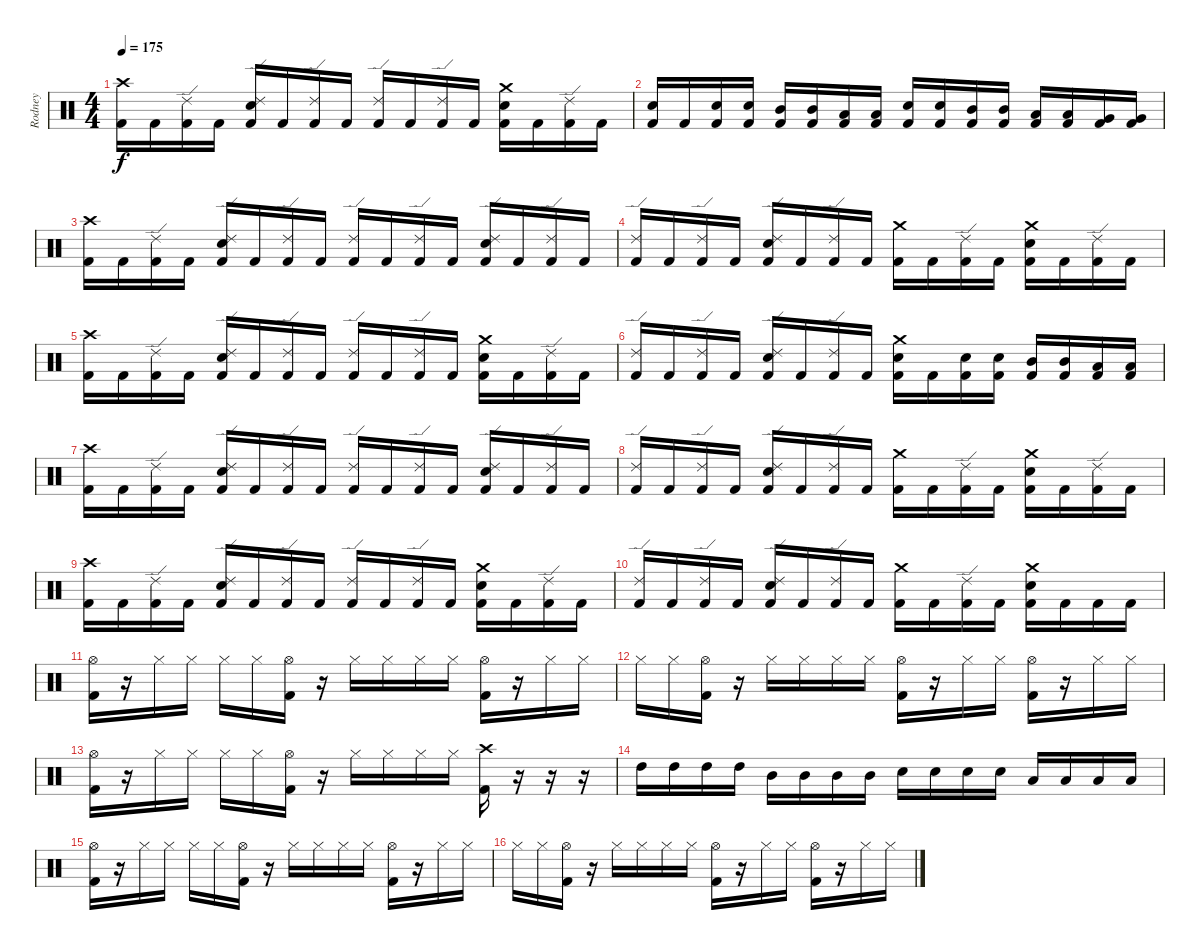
\track ("Rodney" "Rodney") {instrument percussion}
\staff {score}
\articulation defaults
\ts (4 4)
\tempo 175
\clef neutral
\ks c
("Crash high (hit)" "Kick (hit) 2").16{dy f} "Kick (hit) 2".16 ("Ride (edge) 2" "Kick (hit) 2").16 "Kick (hit) 2".16 ("Ride (edge) 2" "Snare (hit) 2" "Kick (hit) 2").16 "Kick (hit) 2".16 ("Ride (edge) 2" "Kick (hit) 2").16 "Kick (hit) 2".16 ("Ride (edge) 2" "Kick (hit) 2").16 "Kick (hit) 2".16 ("Ride (edge) 2" "Kick (hit) 2").16 "Kick (hit) 2".16 ("Crash medium (hit)" "Snare (hit) 2" "Kick (hit) 2").16 "Kick (hit) 2".16 ("Ride (edge) 2" "Kick (hit) 2").16 "Kick (hit) 2".16 |
("Snare (hit) 2" "Kick (hit) 2").16 "Kick (hit) 2".16 ("Snare (hit) 2" "Kick (hit) 2").16 ("Snare (hit) 2" "Kick (hit) 2").16 ("Mid Tom (hit)" "Kick (hit) 2").16 ("Mid Tom (hit)" "Kick (hit) 2").16 ("Low Tom (hit)" "Kick (hit) 2").16 ("Low Tom (hit)" "Kick (hit) 2").16 ("Snare (hit) 2" "Kick (hit) 2").16 ("Snare (hit) 2" "Kick (hit) 2").16 ("Mid Tom (hit)" "Kick (hit) 2").16 ("Mid Tom (hit)" "Kick (hit) 2").16 ("Low Tom (hit)" "Kick (hit) 2").16 ("Low Tom (hit)" "Kick (hit) 2").16 ("Very Low Tom (hit)" "Kick (hit) 2").16 ("Very Low Tom (hit)" "Kick (hit) 2").16 |
("Crash high (hit)" "Kick (hit) 2").16 "Kick (hit) 2".16 ("Ride (edge) 2" "Kick (hit) 2").16 "Kick (hit) 2".16 ("Ride (edge) 2" "Snare (hit) 2" "Kick (hit) 2").16 "Kick (hit) 2".16 ("Ride (edge) 2" "Kick (hit) 2").16 "Kick (hit) 2".16 ("Ride (edge) 2" "Kick (hit) 2").16 "Kick (hit) 2".16 ("Ride (edge) 2" "Kick (hit) 2").16 "Kick (hit) 2".16 ("Ride (edge) 2" "Snare (hit) 2" "Kick (hit) 2").16 "Kick (hit) 2".16 ("Ride (edge) 2" "Kick (hit) 2").16 "Kick (hit) 2".16 |
("Ride (edge) 2" "Kick (hit) 2").16 "Kick (hit) 2".16 ("Ride (edge) 2" "Kick (hit) 2").16 "Kick (hit) 2".16 ("Ride (edge) 2" "Snare (hit) 2" "Kick (hit) 2").16 "Kick (hit) 2".16 ("Ride (edge) 2" "Kick (hit) 2").16 "Kick (hit) 2".16 ("Crash medium (hit)" "Kick (hit) 2").16 "Kick (hit) 2".16 ("Ride (edge) 2" "Kick (hit) 2").16 "Kick (hit) 2".16 ("Crash medium (hit)" "Snare (hit) 2" "Kick (hit) 2").16 "Kick (hit) 2".16 ("Ride (edge) 2" "Kick (hit) 2").16 "Kick (hit) 2".16 |
("Crash high (hit)" "Kick (hit) 2").16 "Kick (hit) 2".16 ("Ride (edge) 2" "Kick (hit) 2").16 "Kick (hit) 2".16 ("Ride (edge) 2" "Snare (hit) 2" "Kick (hit) 2").16 "Kick (hit) 2".16 ("Ride (edge) 2" "Kick (hit) 2").16 "Kick (hit) 2".16 ("Ride (edge) 2" "Kick (hit) 2").16 "Kick (hit) 2".16 ("Ride (edge) 2" "Kick (hit) 2").16 "Kick (hit) 2".16 ("Crash medium (hit)" "Snare (hit) 2" "Kick (hit) 2").16 "Kick (hit) 2".16 ("Ride (edge) 2" "Kick (hit) 2").16 "Kick (hit) 2".16 |
("Ride (edge) 2" "Kick (hit) 2").16 "Kick (hit) 2".16 ("Ride (edge) 2" "Kick (hit) 2").16 "Kick (hit) 2".16 ("Ride (edge) 2" "Snare (hit) 2" "Kick (hit) 2").16 "Kick (hit) 2".16 ("Ride (edge) 2" "Kick (hit) 2").16 "Kick (hit) 2".16 ("Crash medium (hit)" "Snare (hit) 2" "Kick (hit) 2").16 "Kick (hit) 2".16 ("Snare (hit) 2" "Kick (hit) 2").16 ("Snare (hit) 2" "Kick (hit) 2").16 ("Mid Tom (hit)" "Kick (hit) 2").16 ("Mid Tom (hit)" "Kick (hit) 2").16 ("Low Tom (hit)" "Kick (hit) 2").16 ("Low Tom (hit)" "Kick (hit) 2").16 |
("Crash high (hit)" "Kick (hit) 2").16 "Kick (hit) 2".16 ("Ride (edge) 2" "Kick (hit) 2").16 "Kick (hit) 2".16 ("Ride (edge) 2" "Snare (hit) 2" "Kick (hit) 2").16 "Kick (hit) 2".16 ("Ride (edge) 2" "Kick (hit) 2").16 "Kick (hit) 2".16 ("Ride (edge) 2" "Kick (hit) 2").16 "Kick (hit) 2".16 ("Ride (edge) 2" "Kick (hit) 2").16 "Kick (hit) 2".16 ("Ride (edge) 2" "Snare (hit) 2" "Kick (hit) 2").16 "Kick (hit) 2".16 ("Ride (edge) 2" "Kick (hit) 2").16 "Kick (hit) 2".16 |
("Ride (edge) 2" "Kick (hit) 2").16 "Kick (hit) 2".16 ("Ride (edge) 2" "Kick (hit) 2").16 "Kick (hit) 2".16 ("Ride (edge) 2" "Snare (hit) 2" "Kick (hit) 2").16 "Kick (hit) 2".16 ("Ride (edge) 2" "Kick (hit) 2").16 "Kick (hit) 2".16 ("Crash medium (hit)" "Kick (hit) 2").16 "Kick (hit) 2".16 ("Ride (edge) 2" "Kick (hit) 2").16 "Kick (hit) 2".16 ("Crash medium (hit)" "Snare (hit) 2" "Kick (hit) 2").16 "Kick (hit) 2".16 ("Ride (edge) 2" "Kick (hit) 2").16 "Kick (hit) 2".16 |
("Crash high (hit)" "Kick (hit) 2").16 "Kick (hit) 2".16 ("Ride (edge) 2" "Kick (hit) 2").16 "Kick (hit) 2".16 ("Ride (edge) 2" "Snare (hit) 2" "Kick (hit) 2").16 "Kick (hit) 2".16 ("Ride (edge) 2" "Kick (hit) 2").16 "Kick (hit) 2".16 ("Ride (edge) 2" "Kick (hit) 2").16 "Kick (hit) 2".16 ("Ride (edge) 2" "Kick (hit) 2").16 "Kick (hit) 2".16 ("Crash medium (hit)" "Snare (hit) 2" "Kick (hit) 2").16 "Kick (hit) 2".16 ("Ride (edge) 2" "Kick (hit) 2").16 "Kick (hit) 2".16 |
("Ride (edge) 2" "Kick (hit) 2").16 "Kick (hit) 2".16 ("Ride (edge) 2" "Kick (hit) 2").16 "Kick (hit) 2".16 ("Ride (edge) 2" "Snare (hit) 2" "Kick (hit) 2").16 "Kick (hit) 2".16 ("Ride (edge) 2" "Kick (hit) 2").16 "Kick (hit) 2".16 ("Crash medium (hit)" "Kick (hit) 2").16 "Kick (hit) 2".16 ("Ride (edge) 2" "Kick (hit) 2").16 "Kick (hit) 2".16 ("Crash medium (hit)" "Snare (hit) 2" "Kick (hit) 2").16 "Kick (hit) 2".16 "Kick (hit) 2".16 "Kick (hit) 2".16 |
("Hi-Hat (open)" "Kick (hit) 2").16 r.16 "Hi-Hat (closed)".16 "Hi-Hat (closed)".16 "Hi-Hat (closed)".16 "Hi-Hat (closed)".16 ("Hi-Hat (open)" "Kick (hit) 2").16 r.16 "Hi-Hat (closed)".16 "Hi-Hat (closed)".16 "Hi-Hat (closed)".16 "Hi-Hat (closed)".16 ("Hi-Hat (open)" "Kick (hit) 2").16 r.16 "Hi-Hat (closed)".16 "Hi-Hat (closed)".16 |
"Hi-Hat (closed)".16 "Hi-Hat (closed)".16 ("Hi-Hat (open)" "Kick (hit) 2").16 r.16 "Hi-Hat (closed)".16 "Hi-Hat (closed)".16 "Hi-Hat (closed)".16 "Hi-Hat (closed)".16 ("Hi-Hat (open)" "Kick (hit) 2").16 r.16 "Hi-Hat (closed)".16 "Hi-Hat (closed)".16 ("Hi-Hat (open)" "Kick (hit) 2").16 r.16 "Hi-Hat (closed)".16 "Hi-Hat (closed)".16 |
("Hi-Hat (open)" "Kick (hit) 2").16 r.16 "Hi-Hat (closed)".16 "Hi-Hat (closed)".16 "Hi-Hat (closed)".16 "Hi-Hat (closed)".16 ("Hi-Hat (open)" "Kick (hit) 2").16 r.16 "Hi-Hat (closed)".16 "Hi-Hat (closed)".16 "Hi-Hat (closed)".16 "Hi-Hat (closed)".16 ("Crash high (hit)" "Kick (hit) 2").16 r.16 r.16 r.16 |
"High Tom (hit)".16 "High Tom (hit)".16 "High Tom (hit)".16 "High Tom (hit)".16 "Mid Tom (hit)".16 "Mid Tom (hit)".16 "Mid Tom (hit)".16 "Mid Tom (hit)".16 "Snare (hit) 2".16 "Snare (hit) 2".16 "Snare (hit) 2".16 "Snare (hit) 2".16 "Low Tom (hit)".16 "Low Tom (hit)".16 "Low Tom (hit)".16 "Low Tom (hit)".16 |
("Hi-Hat (open)" "Kick (hit) 2").16 r.16 "Hi-Hat (closed)".16 "Hi-Hat (closed)".16 "Hi-Hat (closed)".16 "Hi-Hat (closed)".16 ("Hi-Hat (open)" "Kick (hit) 2").16 r.16 "Hi-Hat (closed)".16 "Hi-Hat (closed)".16 "Hi-Hat (closed)".16 "Hi-Hat (closed)".16 ("Hi-Hat (open)" "Kick (hit) 2").16 r.16 "Hi-Hat (closed)".16 "Hi-Hat (closed)".16 |
"Hi-Hat (closed)".16 "Hi-Hat (closed)".16 ("Hi-Hat (open)" "Kick (hit) 2").16 r.16 "Hi-Hat (closed)".16 "Hi-Hat (closed)".16 "Hi-Hat (closed)".16 "Hi-Hat (closed)".16 ("Hi-Hat (open)" "Kick (hit) 2").16 r.16 "Hi-Hat (closed)".16 "Hi-Hat (closed)".16 ("Hi-Hat (open)" "Kick (hit) 2").16 r.16 "Hi-Hat (closed)".16 "Hi-Hat (closed)".16
